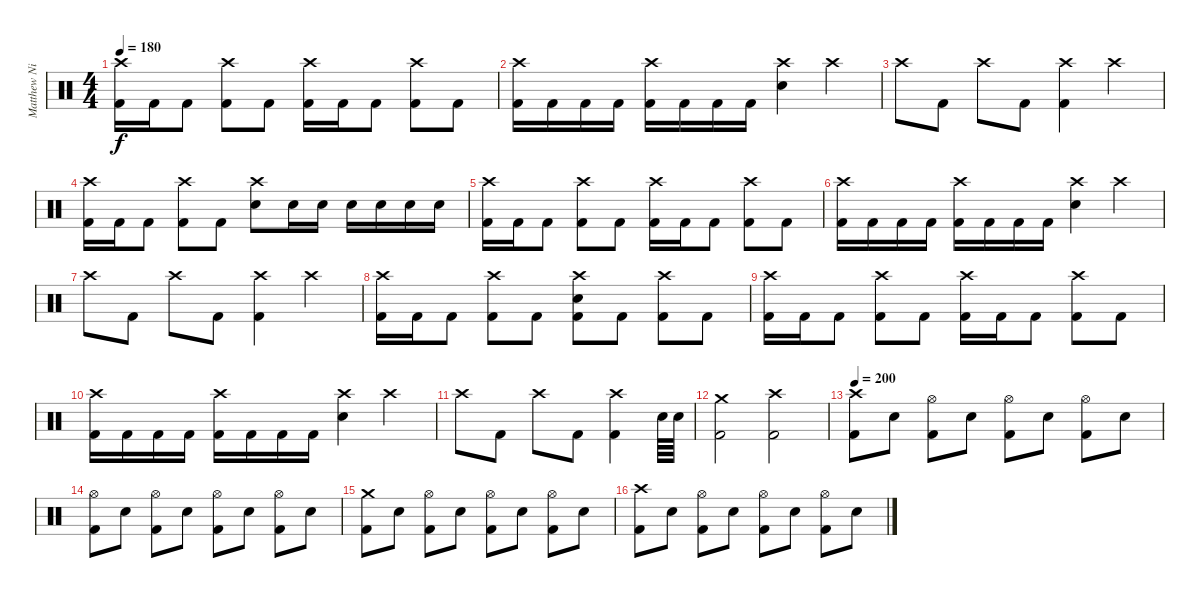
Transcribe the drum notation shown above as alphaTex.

\track ("Matthew Nicholls" "Matthew Ni") {instrument percussion}
\staff {score}
\articulation defaults
\ts (4 4)
\tempo 180
\clef neutral
\ks c
("Crash high (hit)" "Kick (hit) 2").16{dy f} "Kick (hit) 2".16 "Kick (hit) 2".8 ("Crash high (hit)" "Kick (hit) 2").8 "Kick (hit) 2".8 ("Crash high (hit)" "Kick (hit) 2").16 "Kick (hit) 2".16 "Kick (hit) 2".8 ("Crash high (hit)" "Kick (hit) 2").8 "Kick (hit) 2".8 |
("Crash high (hit)" "Kick (hit) 2").16 "Kick (hit) 2".16 "Kick (hit) 2".16 "Kick (hit) 2".16 ("Crash high (hit)" "Kick (hit) 2").16 "Kick (hit) 2".16 "Kick (hit) 2".16 "Kick (hit) 2".16 ("Crash high (hit)" "Electric Snare (hit)").4 "Crash high (hit)".4 |
"Crash high (hit)".8 "Kick (hit) 2".8 "Crash high (hit)".8 "Kick (hit) 2".8 ("Crash high (hit)" "Kick (hit) 2").4 "Crash high (hit)".4 |
("Crash high (hit)" "Kick (hit) 2").16 "Kick (hit) 2".16 "Kick (hit) 2".8 ("Crash high (hit)" "Kick (hit) 2").8 "Kick (hit) 2".8 ("Crash high (hit)" "Electric Snare (hit)").8 "Electric Snare (hit)".16 "Electric Snare (hit)".16 "Electric Snare (hit)".16 "Electric Snare (hit)".16 "Electric Snare (hit)".16 "Electric Snare (hit)".16 |
("Crash high (hit)" "Kick (hit) 2").16 "Kick (hit) 2".16 "Kick (hit) 2".8 ("Crash high (hit)" "Kick (hit) 2").8 "Kick (hit) 2".8 ("Crash high (hit)" "Kick (hit) 2").16 "Kick (hit) 2".16 "Kick (hit) 2".8 ("Crash high (hit)" "Kick (hit) 2").8 "Kick (hit) 2".8 |
("Crash high (hit)" "Kick (hit) 2").16 "Kick (hit) 2".16 "Kick (hit) 2".16 "Kick (hit) 2".16 ("Crash high (hit)" "Kick (hit) 2").16 "Kick (hit) 2".16 "Kick (hit) 2".16 "Kick (hit) 2".16 ("Crash high (hit)" "Electric Snare (hit)").4 "Crash high (hit)".4 |
"Crash high (hit)".8 "Kick (hit) 2".8 "Crash high (hit)".8 "Kick (hit) 2".8 ("Crash high (hit)" "Kick (hit) 2").4 "Crash high (hit)".4 |
("Crash high (hit)" "Kick (hit) 2").16 "Kick (hit) 2".16 "Kick (hit) 2".8 ("Crash high (hit)" "Kick (hit) 2").8 "Kick (hit) 2".8 ("Crash high (hit)" "Electric Snare (hit)" "Kick (hit) 2").8 "Kick (hit) 2".8 ("Crash high (hit)" "Kick (hit) 2").8 "Kick (hit) 2".8 |
("Crash high (hit)" "Kick (hit) 2").16 "Kick (hit) 2".16 "Kick (hit) 2".8 ("Crash high (hit)" "Kick (hit) 2").8 "Kick (hit) 2".8 ("Crash high (hit)" "Kick (hit) 2").16 "Kick (hit) 2".16 "Kick (hit) 2".8 ("Crash high (hit)" "Kick (hit) 2").8 "Kick (hit) 2".8 |
("Crash high (hit)" "Kick (hit) 2").16 "Kick (hit) 2".16 "Kick (hit) 2".16 "Kick (hit) 2".16 ("Crash high (hit)" "Kick (hit) 2").16 "Kick (hit) 2".16 "Kick (hit) 2".16 "Kick (hit) 2".16 ("Crash high (hit)" "Electric Snare (hit)").4 "Crash high (hit)".4 |
"Crash high (hit)".8 "Kick (hit) 2".8 "Crash high (hit)".8 "Kick (hit) 2".8 ("Crash high (hit)" "Kick (hit) 2").4 "Electric Snare (hit)".64 "Electric Snare (hit)".64 |
("Crash medium (hit)" "Kick (hit) 2").2 ("Crash high (hit)" "Kick (hit) 2").2 |
\tempo 200
("Crash high (hit)" "Kick (hit) 2").8 "Electric Snare (hit)".8 ("Hi-Hat (open)" "Kick (hit) 2").8 "Electric Snare (hit)".8 ("Hi-Hat (open)" "Kick (hit) 2").8 "Electric Snare (hit)".8 ("Hi-Hat (open)" "Kick (hit) 2").8 "Electric Snare (hit)".8 |
("Hi-Hat (open)" "Kick (hit) 2").8 "Electric Snare (hit)".8 ("Hi-Hat (open)" "Kick (hit) 2").8 "Electric Snare (hit)".8 ("Hi-Hat (open)" "Kick (hit) 2").8 "Electric Snare (hit)".8 ("Hi-Hat (open)" "Kick (hit) 2").8 "Electric Snare (hit)".8 |
("Crash medium (hit)" "Kick (hit) 2").8 "Electric Snare (hit)".8 ("Hi-Hat (open)" "Kick (hit) 2").8 "Electric Snare (hit)".8 ("Hi-Hat (open)" "Kick (hit) 2").8 "Electric Snare (hit)".8 ("Hi-Hat (open)" "Kick (hit) 2").8 "Electric Snare (hit)".8 |
("Crash high (hit)" "Kick (hit) 2").8 "Electric Snare (hit)".8 ("Hi-Hat (open)" "Kick (hit) 2").8 "Electric Snare (hit)".8 ("Hi-Hat (open)" "Kick (hit) 2").8 "Electric Snare (hit)".8 ("Hi-Hat (open)" "Kick (hit) 2").8 "Electric Snare (hit)".8
